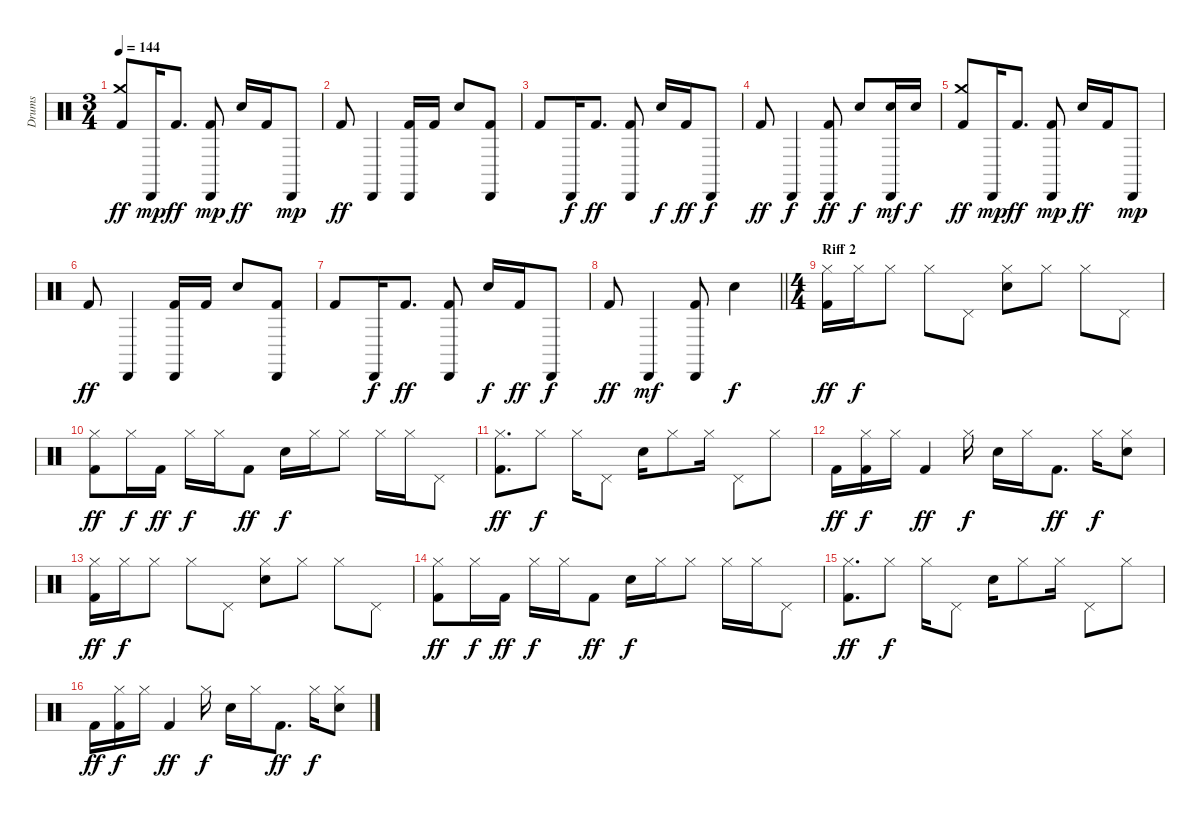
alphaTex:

\track ("Drums" "Drums") {instrument percussion}
\staff {score}
\articulation defaults
\ts (3 4)
\tempo 144
\clef neutral
\ks c
("Kick (hit) 2" "Crash medium (hit)").8{dy ff} "Cabasa (hit)".16{dy mp} "Kick (hit) 2".8{d dy ff} ("Kick (hit) 2" "Cabasa (hit)").8{dy mp} "Snare (hit) 2".16{dy ff} "Kick (hit) 2".16 "Cabasa (hit)".8{dy mp} |
"Kick (hit) 2".8{dy ff} "Cabasa (hit)".4 ("Kick (hit) 2" "Cabasa (hit)").16 "Kick (hit) 2".16 "Snare (hit) 2".8 ("Kick (hit) 2" "Cabasa (hit)").8 |
"Kick (hit) 2".8 "Cabasa (hit)".16{dy f} "Kick (hit) 2".8{d dy ff} ("Kick (hit) 2" "Cabasa (hit)").8 "Snare (hit) 2".16{dy f} "Kick (hit) 2".16{dy ff} "Cabasa (hit)".8{dy f} |
"Kick (hit) 2".8{dy ff} "Cabasa (hit)".4{dy f} ("Kick (hit) 2" "Cabasa (hit)").8{dy ff} "Snare (hit) 2".8{dy f} ("Snare (hit) 2" "Cabasa (hit)").16{dy mf} "Snare (hit) 2".16{dy f} |
("Kick (hit) 2" "Crash medium (hit)").8{dy ff} "Cabasa (hit)".16{dy mp} "Kick (hit) 2".8{d dy ff} ("Kick (hit) 2" "Cabasa (hit)").8{dy mp} "Snare (hit) 2".16{dy ff} "Kick (hit) 2".16 "Cabasa (hit)".8{dy mp} |
"Kick (hit) 2".8{dy ff} "Cabasa (hit)".4 ("Kick (hit) 2" "Cabasa (hit)").16 "Kick (hit) 2".16 "Snare (hit) 2".8 ("Kick (hit) 2" "Cabasa (hit)").8 |
"Kick (hit) 2".8 "Cabasa (hit)".16{dy f} "Kick (hit) 2".8{d dy ff} ("Kick (hit) 2" "Cabasa (hit)").8 "Snare (hit) 2".16{dy f} "Kick (hit) 2".16{dy ff} "Cabasa (hit)".8{dy f} |
\barLineRight lightlight "Kick (hit) 2".8{dy ff} "Cabasa (hit)".4{dy mf}
("Kick (hit) 2" "Cabasa (hit)").8 "Snare (hit) 2".4{dy f} |
\ts (4 4)
\section ("" "Riff 2")
("Kick (hit) 2" "Hi-Hat (closed)").16{dy ff} "Hi-Hat (closed)".16{dy f} "Hi-Hat (closed)".8 "Hi-Hat (closed)".8 "Pedal Hi-Hat (hit)".8 ("Snare (hit) 2" "Hi-Hat (closed)").8 "Hi-Hat (closed)".8 "Hi-Hat (closed)".8 "Pedal Hi-Hat (hit)".8 |
("Kick (hit) 2" "Hi-Hat (closed)").8{dy ff} "Hi-Hat (closed)".16{dy f} "Kick (hit) 2".16{dy ff} "Hi-Hat (closed)".16{dy f} "Hi-Hat (closed)".16 "Kick (hit) 2".8{dy ff} "Snare (hit) 2".16{dy f} "Hi-Hat (closed)".16 "Hi-Hat (closed)".8 "Hi-Hat (closed)".16 "Hi-Hat (closed)".16 "Pedal Hi-Hat (hit)".8 |
("Kick (hit) 2" "Hi-Hat (closed)").8{d dy ff} "Hi-Hat (closed)".8{dy f} "Hi-Hat (closed)".16 "Pedal Hi-Hat (hit)".8 "Snare (hit) 2".16 "Hi-Hat (closed)".8 "Hi-Hat (closed)".16 "Pedal Hi-Hat (hit)".8 "Hi-Hat (closed)".8 |
"Kick (hit) 2".16{dy ff} ("Kick (hit) 2" "Hi-Hat (closed)").16{dy f} "Hi-Hat (closed)".16 "Kick (hit) 2".4{dy ff} "Hi-Hat (closed)".16{dy f} "Snare (hit) 2".16 "Hi-Hat (closed)".16 "Kick (hit) 2".8{d dy ff} "Hi-Hat (closed)".16{dy f} ("Snare (hit) 2" "Hi-Hat (closed)").8 |
("Kick (hit) 2" "Hi-Hat (closed)").16{dy ff} "Hi-Hat (closed)".16{dy f} "Hi-Hat (closed)".8 "Hi-Hat (closed)".8 "Pedal Hi-Hat (hit)".8 ("Snare (hit) 2" "Hi-Hat (closed)").8 "Hi-Hat (closed)".8 "Hi-Hat (closed)".8 "Pedal Hi-Hat (hit)".8 |
("Kick (hit) 2" "Hi-Hat (closed)").8{dy ff} "Hi-Hat (closed)".16{dy f} "Kick (hit) 2".16{dy ff} "Hi-Hat (closed)".16{dy f} "Hi-Hat (closed)".16 "Kick (hit) 2".8{dy ff} "Snare (hit) 2".16{dy f} "Hi-Hat (closed)".16 "Hi-Hat (closed)".8 "Hi-Hat (closed)".16 "Hi-Hat (closed)".16 "Pedal Hi-Hat (hit)".8 |
("Kick (hit) 2" "Hi-Hat (closed)").8{d dy ff} "Hi-Hat (closed)".8{dy f} "Hi-Hat (closed)".16 "Pedal Hi-Hat (hit)".8 "Snare (hit) 2".16 "Hi-Hat (closed)".8 "Hi-Hat (closed)".16 "Pedal Hi-Hat (hit)".8 "Hi-Hat (closed)".8 |
"Kick (hit) 2".16{dy ff} ("Kick (hit) 2" "Hi-Hat (closed)").16{dy f} "Hi-Hat (closed)".16 "Kick (hit) 2".4{dy ff} "Hi-Hat (closed)".16{dy f} "Snare (hit) 2".16 "Hi-Hat (closed)".16 "Kick (hit) 2".8{d dy ff} "Hi-Hat (closed)".16{dy f} ("Snare (hit) 2" "Hi-Hat (closed)").8
